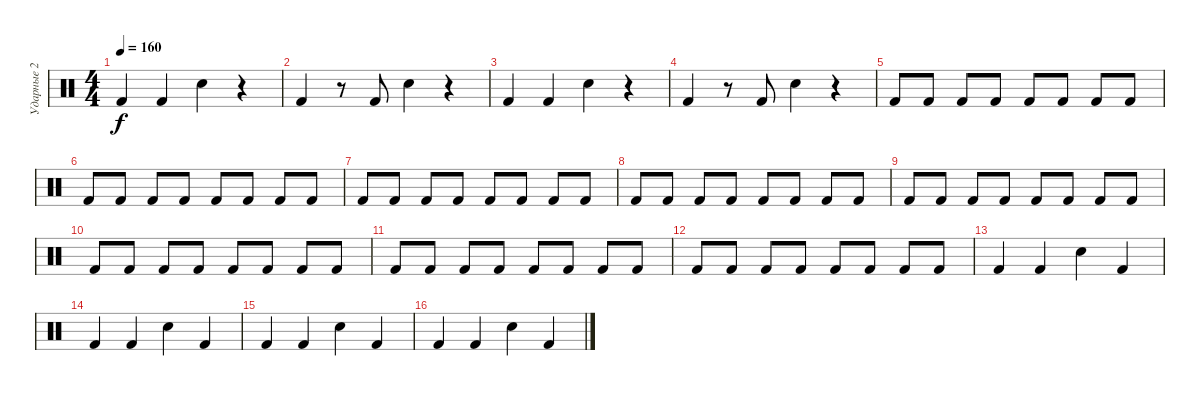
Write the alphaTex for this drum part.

\track ("Ударные 2" "Ударные 2") {instrument percussion}
\staff {score}
\articulation defaults
\ts (4 4)
\tempo 160
\clef neutral
\ks c "Kick (hit) 2".4{dy f} "Kick (hit) 2".4 "Hand Clap (hit)".4
r.4 |
"Kick (hit) 2".4 r.8 "Kick (hit) 2".8 "Hand Clap (hit)".4 r.4 |
"Kick (hit) 2".4 "Kick (hit) 2".4 "Hand Clap (hit)".4 r.4 |
"Kick (hit) 2".4 r.8 "Kick (hit) 2".8 "Hand Clap (hit)".4 r.4 |
"Kick (hit) 2".8 "Kick (hit) 2".8 "Kick (hit) 2".8 "Kick (hit) 2".8 "Kick (hit) 2".8 "Kick (hit) 2".8 "Kick (hit) 2".8 "Kick (hit) 2".8 |
"Kick (hit) 2".8 "Kick (hit) 2".8 "Kick (hit) 2".8 "Kick (hit) 2".8 "Kick (hit) 2".8 "Kick (hit) 2".8 "Kick (hit) 2".8 "Kick (hit) 2".8 |
"Kick (hit) 2".8 "Kick (hit) 2".8 "Kick (hit) 2".8 "Kick (hit) 2".8 "Kick (hit) 2".8 "Kick (hit) 2".8 "Kick (hit) 2".8 "Kick (hit) 2".8 |
"Kick (hit) 2".8 "Kick (hit) 2".8 "Kick (hit) 2".8 "Kick (hit) 2".8 "Kick (hit) 2".8 "Kick (hit) 2".8 "Kick (hit) 2".8 "Kick (hit) 2".8 |
"Kick (hit) 2".8 "Kick (hit) 2".8 "Kick (hit) 2".8 "Kick (hit) 2".8 "Kick (hit) 2".8 "Kick (hit) 2".8 "Kick (hit) 2".8 "Kick (hit) 2".8 |
"Kick (hit) 2".8 "Kick (hit) 2".8 "Kick (hit) 2".8 "Kick (hit) 2".8 "Kick (hit) 2".8 "Kick (hit) 2".8 "Kick (hit) 2".8 "Kick (hit) 2".8 |
"Kick (hit) 2".8 "Kick (hit) 2".8 "Kick (hit) 2".8 "Kick (hit) 2".8 "Kick (hit) 2".8 "Kick (hit) 2".8 "Kick (hit) 2".8 "Kick (hit) 2".8 |
"Kick (hit) 2".8 "Kick (hit) 2".8 "Kick (hit) 2".8 "Kick (hit) 2".8 "Kick (hit) 2".8 "Kick (hit) 2".8 "Kick (hit) 2".8 "Kick (hit) 2".8 |
"Kick (hit) 2".4 "Kick (hit) 2".4 "Hand Clap (hit)".4 "Kick (hit) 2".4 |
"Kick (hit) 2".4 "Kick (hit) 2".4 "Hand Clap (hit)".4 "Kick (hit) 2".4 |
"Kick (hit) 2".4 "Kick (hit) 2".4 "Hand Clap (hit)".4 "Kick (hit) 2".4 |
"Kick (hit) 2".4 "Kick (hit) 2".4 "Hand Clap (hit)".4 "Kick (hit) 2".4
